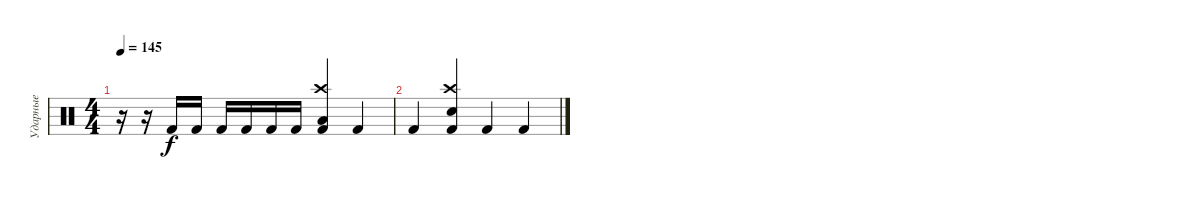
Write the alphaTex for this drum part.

\track ("Ударные" "Ударные") {instrument percussion}
\staff {score}
\articulation defaults
\ts (4 4)
\tempo 145
\clef neutral
\ks c
r.16{dy f} r.16 "Kick (hit) 2".16 "Kick (hit) 2".16 "Kick (hit) 2".16 "Kick (hit) 2".16 "Kick (hit) 2".16 "Kick (hit) 2".16 ("Crash high (hit)" "Kick (hit) 2" "Low Floor Tom (hit)").4 "Kick (hit) 2".4 |
"Kick (hit) 2".4 ("Crash high (hit)" "Kick (hit) 2" "Snare (hit) 2").4 "Kick (hit) 2".4 "Kick (hit) 2".4
